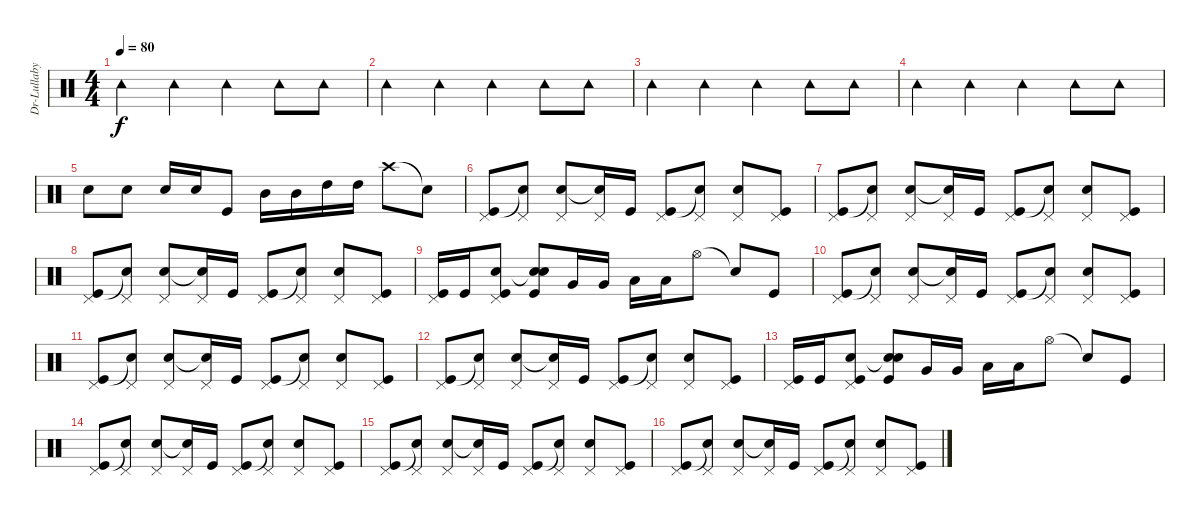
\track ("Dr-Lullaby" "Dr-Lullaby") {instrument percussion}
\staff {score}
\articulation defaults
\ts (4 4)
\tempo 80
\clef neutral
\ks c "Tambourine (hit)".4{dy f} "Tambourine (hit)".4 "Tambourine (hit)".4 "Tambourine (hit)".8 "Tambourine (hit)".8
|
"Tambourine (hit)".4 "Tambourine (hit)".4 "Tambourine (hit)".4 "Tambourine (hit)".8 "Tambourine (hit)".8 |
"Tambourine (hit)".4 "Tambourine (hit)".4 "Tambourine (hit)".4 "Tambourine (hit)".8 "Tambourine (hit)".8 |
"Tambourine (hit)".4 "Tambourine (hit)".4 "Tambourine (hit)".4 "Tambourine (hit)".8 "Tambourine (hit)".8 |
"Snare (hit) 2".8 "Snare (hit) 2".8 "Snare (hit) 2".16 "Snare (hit) 2".16 "Kick (hit)".8 "Mid Tom (hit)".16 "Mid Tom (hit)".16 "High Tom (hit)".16 "High Tom (hit)".16 "Crash high (hit)".8 "Snare (hit)"{t}.8 |
("Kick (hit)" "Pedal Hi-Hat (hit)").8 ("Snare (hit)"{t} "Pedal Hi-Hat (hit)").8 ("Snare (hit) 2" "Pedal Hi-Hat (hit)").8 ("Snare (hit)"{t} "Pedal Hi-Hat (hit)").16 "Kick (hit)".16 ("Kick (hit)" "Pedal Hi-Hat (hit)").8 ("Snare (hit)"{t} "Pedal Hi-Hat (hit)").8 ("Snare (hit) 2" "Pedal Hi-Hat (hit)").8 ("Kick (hit)" "Pedal Hi-Hat (hit)").8 |
("Kick (hit)" "Pedal Hi-Hat (hit)").8 ("Snare (hit)"{t} "Pedal Hi-Hat (hit)").8 ("Snare (hit) 2" "Pedal Hi-Hat (hit)").8 ("Snare (hit)"{t} "Pedal Hi-Hat (hit)").16 "Kick (hit)".16 ("Kick (hit)" "Pedal Hi-Hat (hit)").8 ("Snare (hit)"{t} "Pedal Hi-Hat (hit)").8 ("Snare (hit) 2" "Pedal Hi-Hat (hit)").8 ("Kick (hit)" "Pedal Hi-Hat (hit)").8 |
("Kick (hit)" "Pedal Hi-Hat (hit)").8 ("Snare (hit)"{t} "Pedal Hi-Hat (hit)").8 ("Snare (hit) 2" "Pedal Hi-Hat (hit)").8 ("Snare (hit)"{t} "Pedal Hi-Hat (hit)").16 "Kick (hit)".16 ("Kick (hit)" "Pedal Hi-Hat (hit)").8 ("Snare (hit)"{t} "Pedal Hi-Hat (hit)").8 ("Snare (hit) 2" "Pedal Hi-Hat (hit)").8 ("Kick (hit)" "Pedal Hi-Hat (hit)").8 |
("Kick (hit)" "Pedal Hi-Hat (hit)").16 "Kick (hit)".16 ("Kick (hit)" "Snare (hit) 2" "Pedal Hi-Hat (hit)").8 ("Kick (hit)" "Snare (hit)"{t} "Snare (hit) 2").8 "Very Low Tom (hit)".16 "Very Low Tom (hit)".16 "Low Tom (hit)".16 "Low Tom (hit)".16 "Hi-Hat (open)".8 "Snare (hit)"{t}.8 "Kick (hit)".8 |
("Kick (hit)" "Pedal Hi-Hat (hit)").8 ("Snare (hit)"{t} "Pedal Hi-Hat (hit)").8 ("Snare (hit) 2" "Pedal Hi-Hat (hit)").8 ("Snare (hit)"{t} "Pedal Hi-Hat (hit)").16 "Kick (hit)".16 ("Kick (hit)" "Pedal Hi-Hat (hit)").8 ("Snare (hit)"{t} "Pedal Hi-Hat (hit)").8 ("Snare (hit) 2" "Pedal Hi-Hat (hit)").8 ("Kick (hit)" "Pedal Hi-Hat (hit)").8 |
("Kick (hit)" "Pedal Hi-Hat (hit)").8 ("Snare (hit)"{t} "Pedal Hi-Hat (hit)").8 ("Snare (hit) 2" "Pedal Hi-Hat (hit)").8 ("Snare (hit)"{t} "Pedal Hi-Hat (hit)").16 "Kick (hit)".16 ("Kick (hit)" "Pedal Hi-Hat (hit)").8 ("Snare (hit)"{t} "Pedal Hi-Hat (hit)").8 ("Snare (hit) 2" "Pedal Hi-Hat (hit)").8 ("Kick (hit)" "Pedal Hi-Hat (hit)").8 |
("Kick (hit)" "Pedal Hi-Hat (hit)").8 ("Snare (hit)"{t} "Pedal Hi-Hat (hit)").8 ("Snare (hit) 2" "Pedal Hi-Hat (hit)").8 ("Snare (hit)"{t} "Pedal Hi-Hat (hit)").16 "Kick (hit)".16 ("Kick (hit)" "Pedal Hi-Hat (hit)").8 ("Snare (hit)"{t} "Pedal Hi-Hat (hit)").8 ("Snare (hit) 2" "Pedal Hi-Hat (hit)").8 ("Kick (hit)" "Pedal Hi-Hat (hit)").8 |
("Kick (hit)" "Pedal Hi-Hat (hit)").16 "Kick (hit)".16 ("Kick (hit)" "Snare (hit) 2" "Pedal Hi-Hat (hit)").8 ("Kick (hit)" "Snare (hit)"{t} "Snare (hit) 2").8 "Very Low Tom (hit)".16 "Very Low Tom (hit)".16 "Low Tom (hit)".16 "Low Tom (hit)".16 "Hi-Hat (open)".8 "Snare (hit)"{t}.8 "Kick (hit)".8 |
("Kick (hit)" "Pedal Hi-Hat (hit)").8 ("Snare (hit)"{t} "Pedal Hi-Hat (hit)").8 ("Snare (hit) 2" "Pedal Hi-Hat (hit)").8 ("Snare (hit)"{t} "Pedal Hi-Hat (hit)").16 "Kick (hit)".16 ("Kick (hit)" "Pedal Hi-Hat (hit)").8 ("Snare (hit)"{t} "Pedal Hi-Hat (hit)").8 ("Snare (hit) 2" "Pedal Hi-Hat (hit)").8 ("Kick (hit)" "Pedal Hi-Hat (hit)").8 |
("Kick (hit)" "Pedal Hi-Hat (hit)").8 ("Snare (hit)"{t} "Pedal Hi-Hat (hit)").8 ("Snare (hit) 2" "Pedal Hi-Hat (hit)").8 ("Snare (hit)"{t} "Pedal Hi-Hat (hit)").16 "Kick (hit)".16 ("Kick (hit)" "Pedal Hi-Hat (hit)").8 ("Snare (hit)"{t} "Pedal Hi-Hat (hit)").8 ("Snare (hit) 2" "Pedal Hi-Hat (hit)").8 ("Kick (hit)" "Pedal Hi-Hat (hit)").8 |
("Kick (hit)" "Pedal Hi-Hat (hit)").8 ("Snare (hit)"{t} "Pedal Hi-Hat (hit)").8 ("Snare (hit) 2" "Pedal Hi-Hat (hit)").8 ("Snare (hit)"{t} "Pedal Hi-Hat (hit)").16 "Kick (hit)".16 ("Kick (hit)" "Pedal Hi-Hat (hit)").8 ("Snare (hit)"{t} "Pedal Hi-Hat (hit)").8 ("Snare (hit) 2" "Pedal Hi-Hat (hit)").8 ("Kick (hit)" "Pedal Hi-Hat (hit)").8
